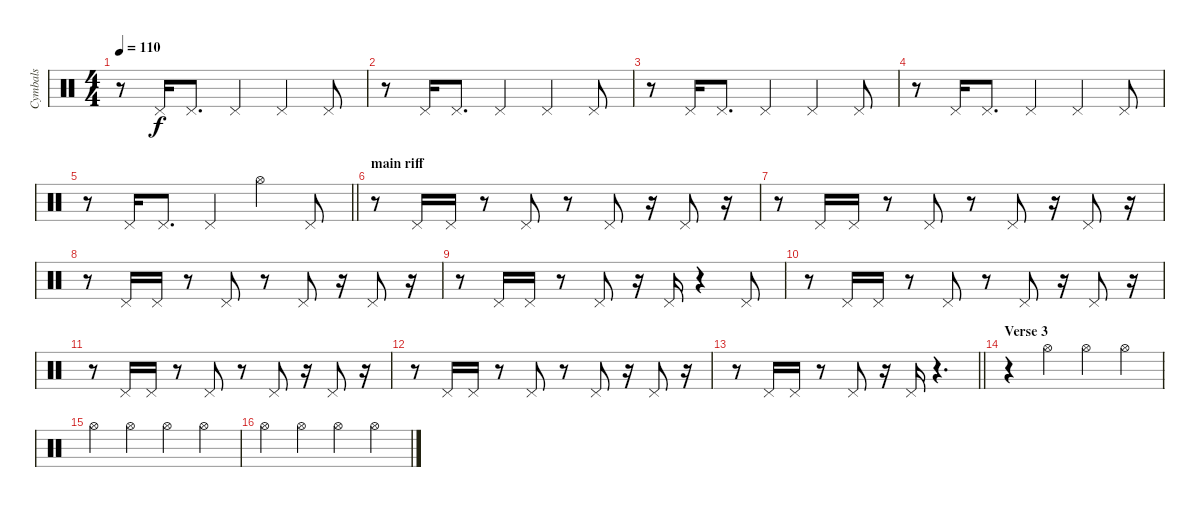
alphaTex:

\track ("Cymbals" "Cymbals") {instrument percussion}
\staff {score}
\articulation defaults
\ts (4 4)
\tempo 110
\clef neutral
\ks c
r.8{dy f} "Pedal Hi-Hat (hit)".16 "Pedal Hi-Hat (hit)".8{d} "Pedal Hi-Hat (hit)".4 "Pedal Hi-Hat (hit)".4 "Pedal Hi-Hat (hit)".8 |
r.8 "Pedal Hi-Hat (hit)".16 "Pedal Hi-Hat (hit)".8{d} "Pedal Hi-Hat (hit)".4 "Pedal Hi-Hat (hit)".4 "Pedal Hi-Hat (hit)".8 |
r.8 "Pedal Hi-Hat (hit)".16 "Pedal Hi-Hat (hit)".8{d} "Pedal Hi-Hat (hit)".4 "Pedal Hi-Hat (hit)".4 "Pedal Hi-Hat (hit)".8 |
r.8 "Pedal Hi-Hat (hit)".16 "Pedal Hi-Hat (hit)".8{d} "Pedal Hi-Hat (hit)".4 "Pedal Hi-Hat (hit)".4 "Pedal Hi-Hat (hit)".8 |
\barLineRight lightlight
r.8 "Pedal Hi-Hat (hit)".16 "Pedal Hi-Hat (hit)".8{d} "Pedal Hi-Hat (hit)".4 "Hi-Hat (open)".4 "Pedal Hi-Hat (hit)".8 |
\section ("" "main riff")
r.8 "Pedal Hi-Hat (hit)".16 "Pedal Hi-Hat (hit)".16 r.8 "Pedal Hi-Hat (hit)".8 r.8 "Pedal Hi-Hat (hit)".8 r.16 "Pedal Hi-Hat (hit)".8 r.16 |
r.8 "Pedal Hi-Hat (hit)".16 "Pedal Hi-Hat (hit)".16 r.8 "Pedal Hi-Hat (hit)".8 r.8 "Pedal Hi-Hat (hit)".8 r.16 "Pedal Hi-Hat (hit)".8 r.16 |
r.8 "Pedal Hi-Hat (hit)".16 "Pedal Hi-Hat (hit)".16 r.8 "Pedal Hi-Hat (hit)".8 r.8 "Pedal Hi-Hat (hit)".8 r.16 "Pedal Hi-Hat (hit)".8 r.16 |
r.8 "Pedal Hi-Hat (hit)".16 "Pedal Hi-Hat (hit)".16 r.8 "Pedal Hi-Hat (hit)".8 r.16 "Pedal Hi-Hat (hit)".16 r.4 "Pedal Hi-Hat (hit)".8 |
r.8 "Pedal Hi-Hat (hit)".16 "Pedal Hi-Hat (hit)".16 r.8 "Pedal Hi-Hat (hit)".8 r.8 "Pedal Hi-Hat (hit)".8 r.16 "Pedal Hi-Hat (hit)".8 r.16 |
r.8 "Pedal Hi-Hat (hit)".16 "Pedal Hi-Hat (hit)".16 r.8 "Pedal Hi-Hat (hit)".8 r.8 "Pedal Hi-Hat (hit)".8 r.16 "Pedal Hi-Hat (hit)".8 r.16 |
r.8 "Pedal Hi-Hat (hit)".16 "Pedal Hi-Hat (hit)".16 r.8 "Pedal Hi-Hat (hit)".8 r.8 "Pedal Hi-Hat (hit)".8 r.16 "Pedal Hi-Hat (hit)".8 r.16 |
\barLineRight lightlight
r.8 "Pedal Hi-Hat (hit)".16 "Pedal Hi-Hat (hit)".16 r.8 "Pedal Hi-Hat (hit)".8 r.16 "Pedal Hi-Hat (hit)".16 r.4{d} |
\section ("" "Verse 3")
r.4 "Hi-Hat (open)".4 "Hi-Hat (open)".4 "Hi-Hat (open)".4 |
"Hi-Hat (open)".4 "Hi-Hat (open)".4 "Hi-Hat (open)".4 "Hi-Hat (open)".4 |
"Hi-Hat (open)".4 "Hi-Hat (open)".4 "Hi-Hat (open)".4 "Hi-Hat (open)".4
